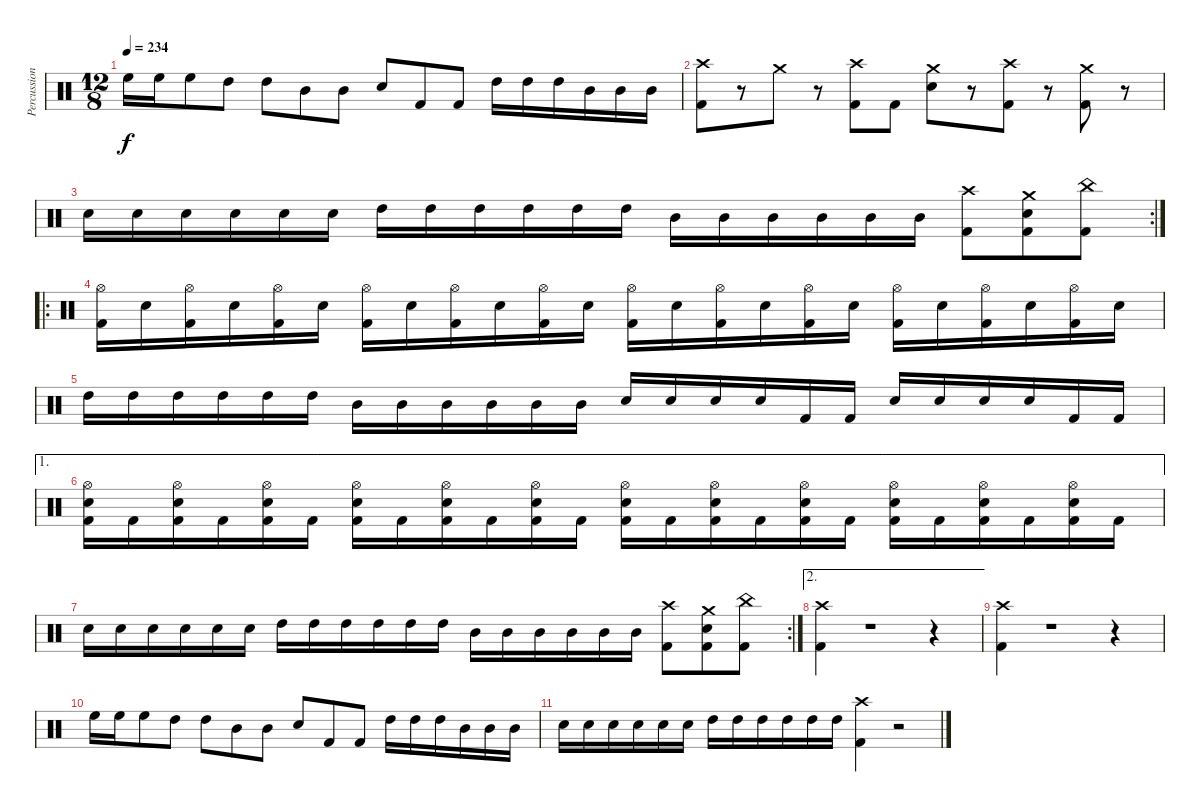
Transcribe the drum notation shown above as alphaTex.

\track ("Percussion" "Percussion") {instrument percussion}
\staff {score}
\articulation defaults
\ts (12 8)
\tempo 234
\clef neutral
\ks c "High Floor Tom (hit)".16{dy f} "High Floor Tom (hit)".16 "High Floor Tom (hit)".8 "High Tom (hit)".8 "High Tom (hit)".8 "Mid Tom (hit)".8 "Mid Tom (hit)".8 "Electric Snare (hit)".8 "Kick (hit) 2".8 "Kick (hit) 2".8 "High Tom (hit)".16 "High Tom (hit)".16 "High Tom (hit)".16 "Mid Tom (hit)".16 "Mid Tom (hit)".16 "Mid Tom (hit)".16
|
("Crash high (hit)" "Kick (hit) 2").8 r.8 "Crash medium (hit)".8 r.8 ("Crash high (hit)" "Kick (hit) 2").8 "Kick (hit) 2".8 ("Crash medium (hit)" "Electric Snare (hit)").8 r.8 ("Crash high (hit)" "Kick (hit) 2").8 r.8 ("Crash medium (hit)" "Kick (hit) 2").8 r.8 |
\rc 2 "Electric Snare (hit)".16 "Electric Snare (hit)".16 "Electric Snare (hit)".16 "Electric Snare (hit)".16 "Electric Snare (hit)".16 "Electric Snare (hit)".16 "High Tom (hit)".16 "High Tom (hit)".16 "High Tom (hit)".16 "High Tom (hit)".16 "High Tom (hit)".16 "High Tom (hit)".16 "Mid Tom (hit)".16 "Mid Tom (hit)".16 "Mid Tom (hit)".16 "Mid Tom (hit)".16 "Mid Tom (hit)".16 "Mid Tom (hit)".16
("Crash high (hit)" "Kick (hit) 2").8 ("Crash medium (hit)" "Electric Snare (hit)" "Kick (hit) 2").8 ("China (hit)" "Kick (hit) 2").8 |
\ro
("Hi-Hat (open)" "Kick (hit) 2").16 "Electric Snare (hit)".16 ("Hi-Hat (open)" "Kick (hit) 2").16 "Electric Snare (hit)".16 ("Hi-Hat (open)" "Kick (hit) 2").16 "Electric Snare (hit)".16 ("Hi-Hat (open)" "Kick (hit) 2").16 "Electric Snare (hit)".16 ("Hi-Hat (open)" "Kick (hit) 2").16 "Electric Snare (hit)".16 ("Hi-Hat (open)" "Kick (hit) 2").16 "Electric Snare (hit)".16 ("Hi-Hat (open)" "Kick (hit) 2").16 "Electric Snare (hit)".16 ("Hi-Hat (open)" "Kick (hit) 2").16 "Electric Snare (hit)".16 ("Hi-Hat (open)" "Kick (hit) 2").16 "Electric Snare (hit)".16 ("Hi-Hat (open)" "Kick (hit) 2").16 "Electric Snare (hit)".16 ("Hi-Hat (open)" "Kick (hit) 2").16 "Electric Snare (hit)".16 ("Hi-Hat (open)" "Kick (hit) 2").16 "Electric Snare (hit)".16 |
"High Tom (hit)".16 "High Tom (hit)".16 "High Tom (hit)".16 "High Tom (hit)".16 "High Tom (hit)".16 "High Tom (hit)".16 "Mid Tom (hit)".16 "Mid Tom (hit)".16 "Mid Tom (hit)".16 "Mid Tom (hit)".16 "Mid Tom (hit)".16 "Mid Tom (hit)".16 "Electric Snare (hit)".16 "Electric Snare (hit)".16 "Electric Snare (hit)".16 "Electric Snare (hit)".16 "Kick (hit) 2".16 "Kick (hit) 2".16 "Electric Snare (hit)".16 "Electric Snare (hit)".16 "Electric Snare (hit)".16 "Electric Snare (hit)".16 "Kick (hit) 2".16 "Kick (hit) 2".16 |
\ae 1
("Hi-Hat (open)" "Electric Snare (hit)" "Kick (hit) 2").16 "Kick (hit) 2".16 ("Hi-Hat (open)" "Electric Snare (hit)" "Kick (hit) 2").16 "Kick (hit) 2".16 ("Hi-Hat (open)" "Electric Snare (hit)" "Kick (hit) 2").16 "Kick (hit) 2".16 ("Hi-Hat (open)" "Electric Snare (hit)" "Kick (hit) 2").16 "Kick (hit) 2".16 ("Hi-Hat (open)" "Electric Snare (hit)" "Kick (hit) 2").16 "Kick (hit) 2".16 ("Hi-Hat (open)" "Electric Snare (hit)" "Kick (hit) 2").16 "Kick (hit) 2".16 ("Hi-Hat (open)" "Electric Snare (hit)" "Kick (hit) 2").16 "Kick (hit) 2".16 ("Hi-Hat (open)" "Electric Snare (hit)" "Kick (hit) 2").16 "Kick (hit) 2".16 ("Hi-Hat (open)" "Electric Snare (hit)" "Kick (hit) 2").16 "Kick (hit) 2".16 ("Hi-Hat (open)" "Electric Snare (hit)" "Kick (hit) 2").16 "Kick (hit) 2".16 ("Hi-Hat (open)" "Electric Snare (hit)" "Kick (hit) 2").16 "Kick (hit) 2".16 ("Hi-Hat (open)" "Electric Snare (hit)" "Kick (hit) 2").16 "Kick (hit) 2".16 |
\rc 2 "Electric Snare (hit)".16 "Electric Snare (hit)".16 "Electric Snare (hit)".16 "Electric Snare (hit)".16 "Electric Snare (hit)".16 "Electric Snare (hit)".16 "High Tom (hit)".16 "High Tom (hit)".16 "High Tom (hit)".16 "High Tom (hit)".16 "High Tom (hit)".16 "High Tom (hit)".16 "Mid Tom (hit)".16 "Mid Tom (hit)".16 "Mid Tom (hit)".16 "Mid Tom (hit)".16 "Mid Tom (hit)".16 "Mid Tom (hit)".16
("Crash high (hit)" "Kick (hit) 2").8 ("Crash medium (hit)" "Electric Snare (hit)" "Kick (hit) 2").8 ("China (hit)" "Kick (hit) 2").8 |
\ae 2
("Crash high (hit)" "Kick (hit) 2").4 r.1{volume 0} r.4 |
("Crash high (hit)" "Kick (hit) 2").4{volume 13} r.1{volume 0} r.4 |
"High Floor Tom (hit)".16{volume 13} "High Floor Tom (hit)".16 "High Floor Tom (hit)".8 "High Tom (hit)".8 "High Tom (hit)".8 "Mid Tom (hit)".8 "Mid Tom (hit)".8 "Electric Snare (hit)".8 "Kick (hit) 2".8 "Kick (hit) 2".8 "High Tom (hit)".16 "High Tom (hit)".16 "High Tom (hit)".16 "Mid Tom (hit)".16 "Mid Tom (hit)".16 "Mid Tom (hit)".16 |
"Electric Snare (hit)".16 "Electric Snare (hit)".16 "Electric Snare (hit)".16 "Electric Snare (hit)".16 "Electric Snare (hit)".16 "Electric Snare (hit)".16 "High Tom (hit)".16 "High Tom (hit)".16 "High Tom (hit)".16 "High Tom (hit)".16 "High Tom (hit)".16 "High Tom (hit)".16 ("Crash high (hit)" "Kick (hit) 2").4 r.2{volume 0}
